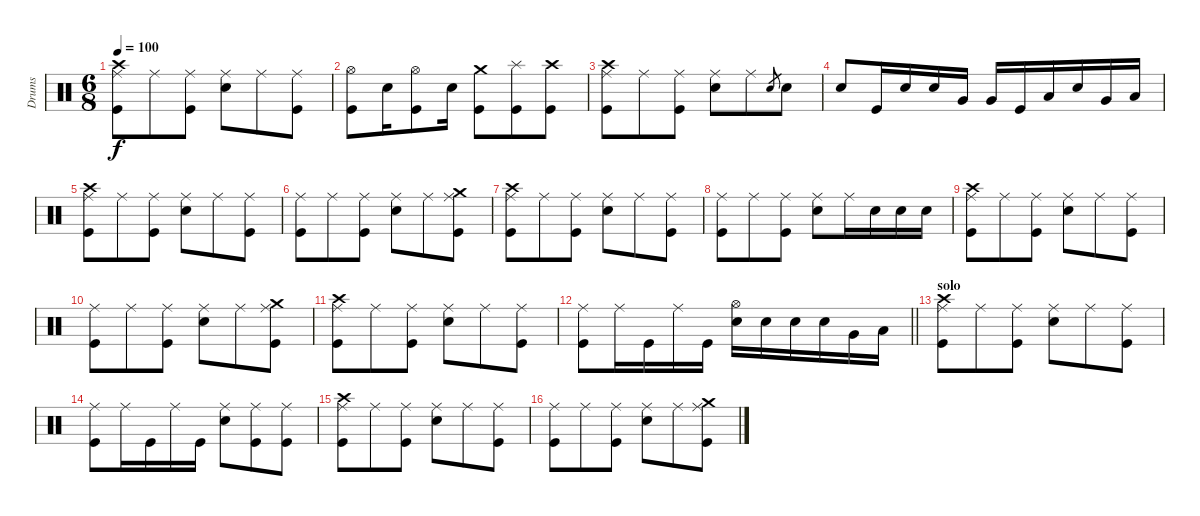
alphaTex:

\track ("Drums" "Drums") {instrument percussion}
\staff {score}
\articulation defaults
\ts (6 8)
\tempo 100
\clef neutral
\ks c
("Crash high (hit)" "Ride (middle)" "Kick (hit)").8{dy f} "Ride (middle)".8 ("Ride (middle)" "Kick (hit)").8 ("Ride (middle)" "Electric Snare (hit)").8 "Ride (middle)".8 ("Ride (middle)" "Kick (hit)").8 |
("Hi-Hat (open)" "Kick (hit)").8 "Electric Snare (hit)".16 ("Hi-Hat (open)" "Kick (hit)").8 "Electric Snare (hit)".16 ("Crash medium (hit)" "Kick (hit)").8 ("Splash (hit)" "Kick (hit)").8 ("Crash high (hit)" "Kick (hit)").8 |
("Crash high (hit)" "Ride (middle)" "Kick (hit)").8 "Ride (middle)".8 ("Ride (middle)" "Kick (hit)").8 ("Ride (middle)" "Electric Snare (hit)").8 "Ride (middle)".8 "Electric Snare (hit)".8{gr} "Electric Snare (hit)".8 |
"Electric Snare (hit)".8 "Kick (hit)".16 "Electric Snare (hit)".16 "Electric Snare (hit)".16 "Very Low Tom (hit)".16 "Very Low Tom (hit)".16 "Kick (hit)".16 "Low Tom (hit)".16 "Electric Snare (hit)".16 "Very Low Tom (hit)".16 "Low Floor Tom (hit)".16 |
("Crash high (hit)" "Ride (middle)" "Kick (hit)").8 "Ride (middle)".8 ("Ride (middle)" "Kick (hit)").8 ("Ride (middle)" "Electric Snare (hit)").8 "Ride (middle)".8 ("Ride (middle)" "Kick (hit)").8 |
("Ride (middle)" "Kick (hit)").8 "Ride (middle)".8 ("Ride (middle)" "Kick (hit)").8 ("Ride (middle)" "Electric Snare (hit)").8 "Ride (middle)".8 ("Crash medium (hit)" "Ride (middle)" "Kick (hit)").8 |
("Crash high (hit)" "Ride (middle)" "Kick (hit)").8 "Ride (middle)".8 ("Ride (middle)" "Kick (hit)").8 ("Ride (middle)" "Electric Snare (hit)").8 "Ride (middle)".8 ("Ride (middle)" "Kick (hit)").8 |
("Ride (middle)" "Kick (hit)").8 "Ride (middle)".8 ("Ride (middle)" "Kick (hit)").8 ("Ride (middle)" "Electric Snare (hit)").8 "Ride (middle)".16 "Electric Snare (hit)".16 "Electric Snare (hit)".16 "Electric Snare (hit)".16 |
("Crash high (hit)" "Ride (middle)" "Kick (hit)").8 "Ride (middle)".8 ("Ride (middle)" "Kick (hit)").8 ("Ride (middle)" "Electric Snare (hit)").8 "Ride (middle)".8 ("Ride (middle)" "Kick (hit)").8 |
("Ride (middle)" "Kick (hit)").8 "Ride (middle)".8 ("Ride (middle)" "Kick (hit)").8 ("Ride (middle)" "Electric Snare (hit)").8 "Ride (middle)".8 ("Crash medium (hit)" "Ride (middle)" "Kick (hit)").8 |
("Crash high (hit)" "Ride (middle)" "Kick (hit)").8 "Ride (middle)".8 ("Ride (middle)" "Kick (hit)").8 ("Ride (middle)" "Electric Snare (hit)").8 "Ride (middle)".8 ("Ride (middle)" "Kick (hit)").8 |
\barLineRight lightlight
("Ride (middle)" "Kick (hit)").8 "Ride (middle)".16 "Kick (hit)".16 "Ride (middle)".16 "Kick (hit)".16 ("Hi-Hat (open)" "Electric Snare (hit)").16 "Electric Snare (hit)".16 "Electric Snare (hit)".16 "Electric Snare (hit)".16 "Very Low Tom (hit)".16 "Low Floor Tom (hit)".16 |
\section ("" "solo")
("Crash high (hit)" "Ride (middle)" "Kick (hit)").8 "Ride (middle)".8 ("Ride (middle)" "Kick (hit)").8 ("Ride (middle)" "Electric Snare (hit)").8 "Ride (middle)".8 ("Ride (middle)" "Kick (hit)").8 |
("Ride (middle)" "Kick (hit)").8 "Ride (middle)".16 "Kick (hit)".16 "Ride (middle)".16 "Kick (hit)".16 ("Ride (middle)" "Electric Snare (hit)").8 ("Ride (middle)" "Kick (hit)").8 ("Ride (middle)" "Kick (hit)").8 |
("Crash high (hit)" "Ride (middle)" "Kick (hit)").8 "Ride (middle)".8 ("Ride (middle)" "Kick (hit)").8 ("Ride (middle)" "Electric Snare (hit)").8 "Ride (middle)".8 ("Ride (middle)" "Kick (hit)").8 |
("Ride (middle)" "Kick (hit)").8 "Ride (middle)".8 ("Ride (middle)" "Kick (hit)").8 ("Ride (middle)" "Electric Snare (hit)").8 "Ride (middle)".8 ("Crash medium (hit)" "Ride (middle)" "Kick (hit)").8
